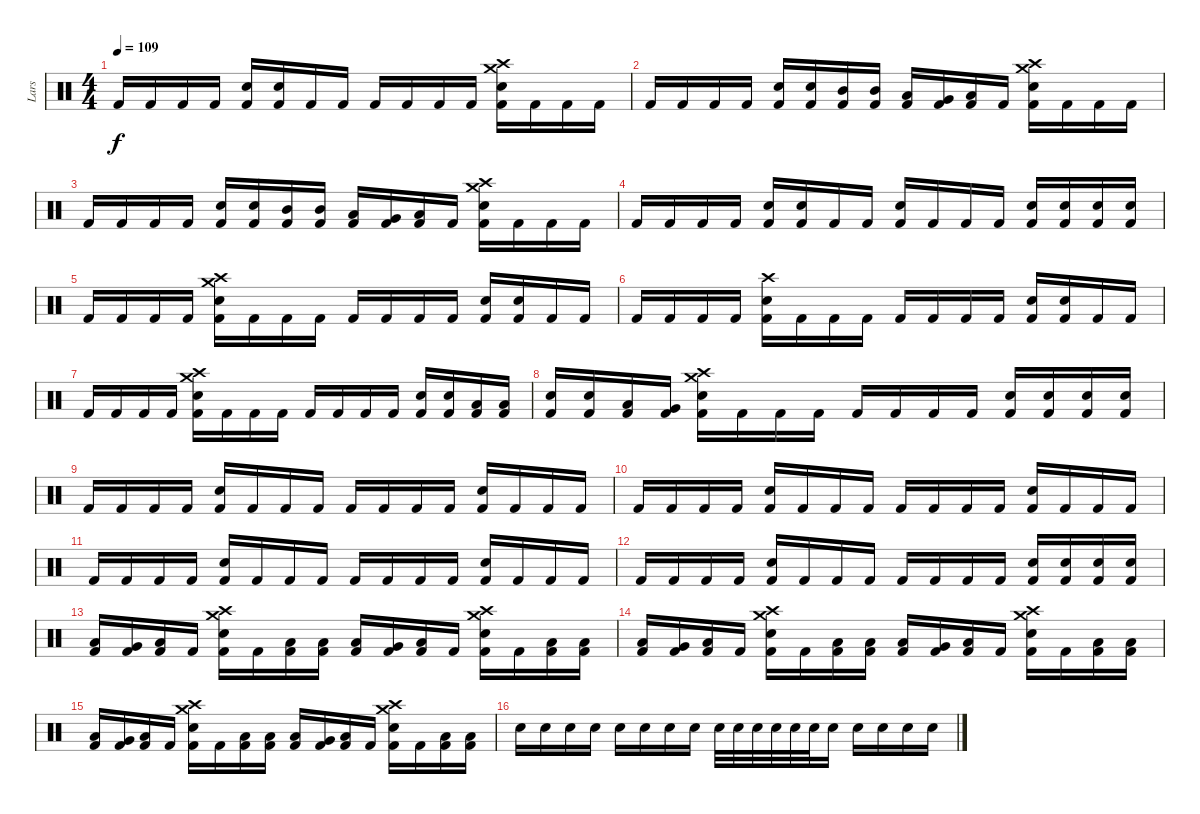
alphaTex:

\track ("Lars" "Lars") {instrument percussion}
\staff {score}
\articulation defaults
\ts (4 4)
\tempo 109
\clef neutral
\ks c "Kick (hit) 2".16{dy f} "Kick (hit) 2".16 "Kick (hit) 2".16 "Kick (hit) 2".16
("Electric Snare (hit)" "Kick (hit) 2").16 ("Electric Snare (hit)" "Kick (hit) 2").16 "Kick (hit) 2".16 "Kick (hit) 2".16 "Kick (hit) 2".16 "Kick (hit) 2".16 "Kick (hit) 2".16 "Kick (hit) 2".16 ("Crash medium (hit)" "Crash high (hit)" "Electric Snare (hit)" "Kick (hit) 2").16 "Kick (hit) 2".16 "Kick (hit) 2".16 "Kick (hit) 2".16 |
"Kick (hit) 2".16 "Kick (hit) 2".16 "Kick (hit) 2".16 "Kick (hit) 2".16 ("Electric Snare (hit)" "Kick (hit) 2").16 ("Electric Snare (hit)" "Kick (hit) 2").16 ("Mid Tom (hit)" "Kick (hit) 2").16 ("Mid Tom (hit)" "Kick (hit) 2").16 ("Low Tom (hit)" "Kick (hit) 2").16 ("Very Low Tom (hit)" "Kick (hit) 2").16 ("Low Floor Tom (hit)" "Kick (hit) 2").16 "Kick (hit) 2".16 ("Crash high (hit)" "Crash medium (hit)" "Electric Snare (hit)" "Kick (hit) 2").16 "Kick (hit) 2".16 "Kick (hit) 2".16 "Kick (hit) 2".16 |
"Kick (hit) 2".16 "Kick (hit) 2".16 "Kick (hit) 2".16 "Kick (hit) 2".16 ("Electric Snare (hit)" "Kick (hit) 2").16 ("Electric Snare (hit)" "Kick (hit) 2").16 ("Mid Tom (hit)" "Kick (hit) 2").16 ("Mid Tom (hit)" "Kick (hit) 2").16 ("Low Tom (hit)" "Kick (hit) 2").16 ("Very Low Tom (hit)" "Kick (hit) 2").16 ("Low Floor Tom (hit)" "Kick (hit) 2").16 "Kick (hit) 2".16 ("Crash high (hit)" "Crash medium (hit)" "Electric Snare (hit)" "Kick (hit) 2").16 "Kick (hit) 2".16 "Kick (hit) 2".16 "Kick (hit) 2".16 |
"Kick (hit) 2".16 "Kick (hit) 2".16 "Kick (hit) 2".16 "Kick (hit) 2".16 ("Electric Snare (hit)" "Kick (hit) 2").16 ("Electric Snare (hit)" "Kick (hit) 2").16 "Kick (hit) 2".16 "Kick (hit) 2".16 ("Electric Snare (hit)" "Kick (hit) 2").16 "Kick (hit) 2".16 "Kick (hit) 2".16 "Kick (hit) 2".16 ("Electric Snare (hit)" "Kick (hit) 2").16 ("Electric Snare (hit)" "Kick (hit) 2").16 ("Electric Snare (hit)" "Kick (hit) 2").16 ("Electric Snare (hit)" "Kick (hit) 2").16 |
"Kick (hit) 2".16 "Kick (hit) 2".16 "Kick (hit) 2".16 "Kick (hit) 2".16 ("Crash high (hit)" "Crash medium (hit)" "Electric Snare (hit)" "Kick (hit) 2").16 "Kick (hit) 2".16 "Kick (hit) 2".16 "Kick (hit) 2".16 "Kick (hit) 2".16 "Kick (hit) 2".16 "Kick (hit) 2".16 "Kick (hit) 2".16 ("Electric Snare (hit)" "Kick (hit) 2").16 ("Electric Snare (hit)" "Kick (hit) 2").16 "Kick (hit) 2".16 "Kick (hit) 2".16 |
"Kick (hit) 2".16 "Kick (hit) 2".16 "Kick (hit) 2".16 "Kick (hit) 2".16 ("Crash high (hit)" "Electric Snare (hit)" "Kick (hit) 2").16 "Kick (hit) 2".16 "Kick (hit) 2".16 "Kick (hit) 2".16 "Kick (hit) 2".16 "Kick (hit) 2".16 "Kick (hit) 2".16 "Kick (hit) 2".16 ("Electric Snare (hit)" "Kick (hit) 2").16 ("Electric Snare (hit)" "Kick (hit) 2").16 "Kick (hit) 2".16 "Kick (hit) 2".16 |
"Kick (hit) 2".16 "Kick (hit) 2".16 "Kick (hit) 2".16 "Kick (hit) 2".16 ("Crash high (hit)" "Crash medium (hit)" "Electric Snare (hit)" "Kick (hit) 2").16 "Kick (hit) 2".16 "Kick (hit) 2".16 "Kick (hit) 2".16 "Kick (hit) 2".16 "Kick (hit) 2".16 "Kick (hit) 2".16 "Kick (hit) 2".16 ("Electric Snare (hit)" "Kick (hit) 2").16 ("Electric Snare (hit)" "Kick (hit) 2").16 ("Low Tom (hit)" "Kick (hit) 2").16 ("Low Tom (hit)" "Kick (hit) 2").16 |
("Electric Snare (hit)" "Kick (hit) 2").16 ("Electric Snare (hit)" "Kick (hit) 2").16 ("Low Tom (hit)" "Kick (hit) 2").16 ("Very Low Tom (hit)" "Kick (hit) 2").16 ("Crash high (hit)" "Crash medium (hit)" "Electric Snare (hit)" "Kick (hit) 2").16 "Kick (hit) 2".16 "Kick (hit) 2".16 "Kick (hit) 2".16 "Kick (hit) 2".16 "Kick (hit) 2".16 "Kick (hit) 2".16 "Kick (hit) 2".16 ("Electric Snare (hit)" "Kick (hit) 2").16 ("Electric Snare (hit)" "Kick (hit) 2").16 ("Electric Snare (hit)" "Kick (hit) 2").16 ("Electric Snare (hit)" "Kick (hit) 2").16 |
"Kick (hit) 2".16 "Kick (hit) 2".16 "Kick (hit) 2".16 "Kick (hit) 2".16 ("Electric Snare (hit)" "Kick (hit) 2").16 "Kick (hit) 2".16 "Kick (hit) 2".16 "Kick (hit) 2".16 "Kick (hit) 2".16 "Kick (hit) 2".16 "Kick (hit) 2".16 "Kick (hit) 2".16 ("Electric Snare (hit)" "Kick (hit) 2").16 "Kick (hit) 2".16 "Kick (hit) 2".16 "Kick (hit) 2".16 |
"Kick (hit) 2".16 "Kick (hit) 2".16 "Kick (hit) 2".16 "Kick (hit) 2".16 ("Electric Snare (hit)" "Kick (hit) 2").16 "Kick (hit) 2".16 "Kick (hit) 2".16 "Kick (hit) 2".16 "Kick (hit) 2".16 "Kick (hit) 2".16 "Kick (hit) 2".16 "Kick (hit) 2".16 ("Electric Snare (hit)" "Kick (hit) 2").16 "Kick (hit) 2".16 "Kick (hit) 2".16 "Kick (hit) 2".16 |
"Kick (hit) 2".16 "Kick (hit) 2".16 "Kick (hit) 2".16 "Kick (hit) 2".16 ("Electric Snare (hit)" "Kick (hit) 2").16 "Kick (hit) 2".16 "Kick (hit) 2".16 "Kick (hit) 2".16 "Kick (hit) 2".16 "Kick (hit) 2".16 "Kick (hit) 2".16 "Kick (hit) 2".16 ("Electric Snare (hit)" "Kick (hit) 2").16 "Kick (hit) 2".16 "Kick (hit) 2".16 "Kick (hit) 2".16 |
"Kick (hit) 2".16 "Kick (hit) 2".16 "Kick (hit) 2".16 "Kick (hit) 2".16 ("Electric Snare (hit)" "Kick (hit) 2").16 "Kick (hit) 2".16 "Kick (hit) 2".16 "Kick (hit) 2".16 "Kick (hit) 2".16 "Kick (hit) 2".16 "Kick (hit) 2".16 "Kick (hit) 2".16 ("Electric Snare (hit)" "Kick (hit) 2").16 ("Electric Snare (hit)" "Kick (hit) 2").16 ("Electric Snare (hit)" "Kick (hit) 2").16 ("Electric Snare (hit)" "Kick (hit) 2").16 |
("Low Tom (hit)" "Kick (hit) 2").16 ("Very Low Tom (hit)" "Kick (hit) 2").16 ("Low Floor Tom (hit)" "Kick (hit) 2").16 "Kick (hit) 2".16 ("Crash high (hit)" "Crash medium (hit)" "Electric Snare (hit)" "Kick (hit) 2").16 "Kick (hit) 2".16 ("Low Tom (hit)" "Kick (hit) 2").16 ("Low Tom (hit)" "Kick (hit) 2").16 ("Low Tom (hit)" "Kick (hit) 2").16 ("Very Low Tom (hit)" "Kick (hit) 2").16 ("Low Floor Tom (hit)" "Kick (hit) 2").16 "Kick (hit) 2".16 ("Crash high (hit)" "Crash medium (hit)" "Electric Snare (hit)" "Kick (hit) 2").16 "Kick (hit) 2".16 ("Low Tom (hit)" "Kick (hit) 2").16 ("Low Tom (hit)" "Kick (hit) 2").16 |
("Low Tom (hit)" "Kick (hit) 2").16 ("Very Low Tom (hit)" "Kick (hit) 2").16 ("Low Floor Tom (hit)" "Kick (hit) 2").16 "Kick (hit) 2".16 ("Crash high (hit)" "Crash medium (hit)" "Electric Snare (hit)" "Kick (hit) 2").16 "Kick (hit) 2".16 ("Low Tom (hit)" "Kick (hit) 2").16 ("Low Tom (hit)" "Kick (hit) 2").16 ("Low Tom (hit)" "Kick (hit) 2").16 ("Very Low Tom (hit)" "Kick (hit) 2").16 ("Low Floor Tom (hit)" "Kick (hit) 2").16 "Kick (hit) 2".16 ("Crash high (hit)" "Crash medium (hit)" "Electric Snare (hit)" "Kick (hit) 2").16 "Kick (hit) 2".16 ("Low Tom (hit)" "Kick (hit) 2").16 ("Low Tom (hit)" "Kick (hit) 2").16 |
("Low Tom (hit)" "Kick (hit) 2").16 ("Very Low Tom (hit)" "Kick (hit) 2").16 ("Low Floor Tom (hit)" "Kick (hit) 2").16 "Kick (hit) 2".16 ("Crash high (hit)" "Crash medium (hit)" "Electric Snare (hit)" "Kick (hit) 2").16 "Kick (hit) 2".16 ("Low Tom (hit)" "Kick (hit) 2").16 ("Low Tom (hit)" "Kick (hit) 2").16 ("Low Tom (hit)" "Kick (hit) 2").16 ("Very Low Tom (hit)" "Kick (hit) 2").16 ("Low Floor Tom (hit)" "Kick (hit) 2").16 "Kick (hit) 2".16 ("Crash high (hit)" "Crash medium (hit)" "Electric Snare (hit)" "Kick (hit) 2").16 "Kick (hit) 2".16 ("Low Tom (hit)" "Kick (hit) 2").16 ("Low Tom (hit)" "Kick (hit) 2").16 |
"Electric Snare (hit)".16 "Electric Snare (hit)".16 "Electric Snare (hit)".16 "Electric Snare (hit)".16 "Electric Snare (hit)".16 "Electric Snare (hit)".16 "Electric Snare (hit)".16 "Electric Snare (hit)".16 "Electric Snare (hit)".32 "Electric Snare (hit)".32 "Electric Snare (hit)".32 "Electric Snare (hit)".32 "Electric Snare (hit)".32 "Electric Snare (hit)".32 "Electric Snare (hit)".16 "Electric Snare (hit)".16 "Electric Snare (hit)".16 "Electric Snare (hit)".16 "Electric Snare (hit)".16
